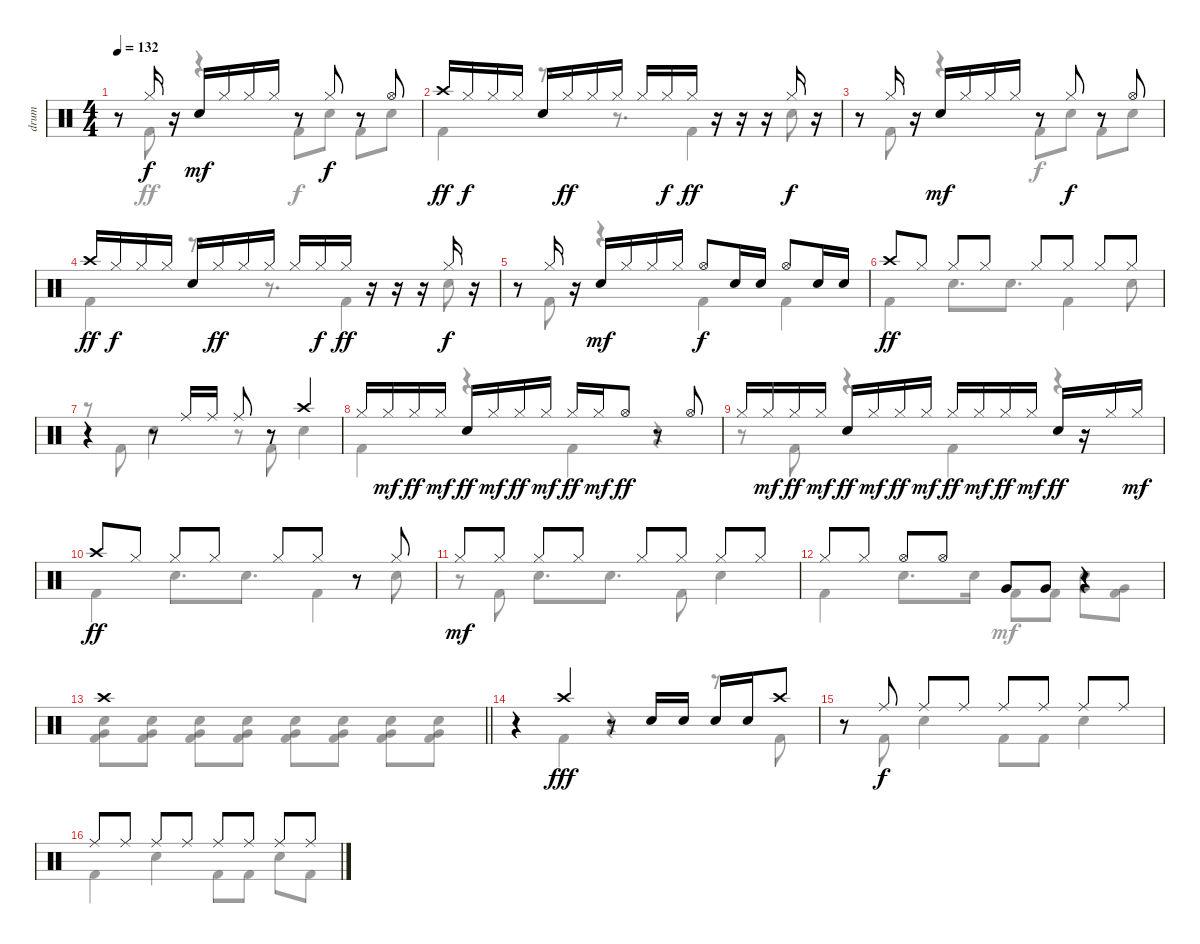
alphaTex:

\track ("drum" "drum") {instrument percussion}
\staff {score}
\articulation defaults
\voice
\ts (4 4)
\tempo 132
\clef neutral
\ks c
r.8{dy f} "Hi-Hat (closed)".16 r.16 "Snare (hit) 2".16{dy mf} "Hi-Hat (closed)".16 "Hi-Hat (closed)".16 "Hi-Hat (closed)".16 r.8 "Hi-Hat (closed)".8{dy f} r.8 "Hi-Hat (open)".8 |
"Crash high (hit)".16{dy ff} "Hi-Hat (closed)".16{dy f} "Hi-Hat (closed)".16 "Hi-Hat (closed)".16 "Snare (hit) 2".16 "Hi-Hat (closed)".16{dy ff} "Hi-Hat (closed)".16 "Hi-Hat (closed)".16 "Hi-Hat (closed)".16 "Hi-Hat (closed)".16{dy f} "Hi-Hat (closed)".16{dy ff} r.16 r.16 r.16 "Hi-Hat (closed)".16{dy f} r.16 |
r.8 "Hi-Hat (closed)".16 r.16 "Snare (hit) 2".16{dy mf} "Hi-Hat (closed)".16 "Hi-Hat (closed)".16 "Hi-Hat (closed)".16 r.8 "Hi-Hat (closed)".8{dy f} r.8 "Hi-Hat (open)".8 |
"Crash high (hit)".16{dy ff} "Hi-Hat (closed)".16{dy f} "Hi-Hat (closed)".16 "Hi-Hat (closed)".16 "Snare (hit) 2".16 "Hi-Hat (closed)".16{dy ff} "Hi-Hat (closed)".16 "Hi-Hat (closed)".16 "Hi-Hat (closed)".16 "Hi-Hat (closed)".16{dy f} "Hi-Hat (closed)".16{dy ff} r.16 r.16 r.16 "Hi-Hat (closed)".16{dy f} r.16 |
r.8 "Hi-Hat (closed)".16 r.16 "Snare (hit) 2".16{dy mf} "Hi-Hat (closed)".16 "Hi-Hat (closed)".16 "Hi-Hat (closed)".16 "Hi-Hat (open)".8{dy f} "Snare (hit) 2".16 "Snare (hit) 2".16 "Hi-Hat (open)".8 "Snare (hit) 2".16 "Snare (hit) 2".16 |
"Crash high (hit)".8{dy ff} "Hi-Hat (closed)".8 "Hi-Hat (closed)".8 "Hi-Hat (closed)".8 "Hi-Hat (closed)".8 "Hi-Hat (closed)".8 "Hi-Hat (closed)".8 "Hi-Hat (closed)".8 |
r.4 r.8 "Ride (middle)".16 "Ride (middle)".16 "Ride (middle)".8 r.8 "Crash high (hit)".4 |
"Hi-Hat (closed)".16 "Hi-Hat (closed)".16{dy mf} "Hi-Hat (closed)".16{dy ff} "Hi-Hat (closed)".16{dy mf} "Snare (hit) 2".16{dy ff} "Hi-Hat (closed)".16{dy mf} "Hi-Hat (closed)".16{dy ff} "Hi-Hat (closed)".16{dy mf} "Hi-Hat (closed)".16{dy ff} "Hi-Hat (closed)".16{dy mf} "Hi-Hat (open)".8{dy ff} r.8 "Hi-Hat (open)".8 |
"Hi-Hat (closed)".16 "Hi-Hat (closed)".16{dy mf} "Hi-Hat (closed)".16{dy ff} "Hi-Hat (closed)".16{dy mf} "Snare (hit) 2".16{dy ff} "Hi-Hat (closed)".16{dy mf} "Hi-Hat (closed)".16{dy ff} "Hi-Hat (closed)".16{dy mf} "Hi-Hat (closed)".16{dy ff} "Hi-Hat (closed)".16{dy mf} "Hi-Hat (closed)".16{dy ff} "Hi-Hat (closed)".16{dy mf} "Snare (hit) 2".16{dy ff} r.16 "Hi-Hat (closed)".16 "Hi-Hat (closed)".16{dy mf} |
"Crash high (hit)".8{dy ff} "Hi-Hat (closed)".8 "Hi-Hat (closed)".8 "Hi-Hat (closed)".8 "Hi-Hat (closed)".8 "Hi-Hat (closed)".8 r.8 "Hi-Hat (closed)".8 |
"Hi-Hat (closed)".8{dy mf} "Hi-Hat (closed)".8 "Hi-Hat (closed)".8 "Hi-Hat (closed)".8 "Hi-Hat (closed)".8 "Hi-Hat (closed)".8 "Hi-Hat (closed)".8 "Hi-Hat (closed)".8 |
"Hi-Hat (closed)".8 "Hi-Hat (closed)".8 "Hi-Hat (open)".8 "Hi-Hat (open)".8 "Very Low Tom (hit)".8 "Very Low Tom (hit)".8 r.4 |
\barLineRight lightlight "Crash high (hit)".1
|
r.4 "Crash high (hit)".4{dy fff} r.8 "Snare (hit) 2".16 "Snare (hit) 2".16 "Snare (hit) 2".16 "Snare (hit) 2".16 "Crash high (hit)".8 |
r.8 "Ride (middle)".8{dy f} "Ride (middle)".8 "Ride (middle)".8 "Ride (middle)".8 "Ride (middle)".8 "Ride (middle)".8 "Ride (middle)".8 |
"Ride (middle)".8 "Ride (middle)".8 "Ride (middle)".8 "Ride (middle)".8 "Ride (middle)".8 "Ride (middle)".8 "Ride (middle)".8 "Ride (middle)".8
\voice
\clef neutral
\ottava regular
\simile none
\ks c
r.8{dy ff} "Kick (hit) 2".8 r.4 "Kick (hit) 2".8{dy f} "Snare (hit) 2".8 "Kick (hit) 2".8 "Snare (hit) 2".8 |
"Kick (hit) 2".4{dy ff} r.8{d} r.8{d} "Kick (hit) 2".4 "Snare (hit) 2".8 |
r.8 "Kick (hit) 2".8 r.4 "Kick (hit) 2".8{dy f} "Snare (hit) 2".8 "Kick (hit) 2".8 "Snare (hit) 2".8 |
"Kick (hit) 2".4{dy ff} r.8{d} r.8{d} "Kick (hit) 2".4 "Snare (hit) 2".8 |
r.8 "Kick (hit) 2".8 r.4 "Kick (hit) 2".4{dy f} "Kick (hit) 2".4 |
"Kick (hit) 2".4{dy ff} "Snare (hit) 2".8{d} "Snare (hit) 2".8{d} "Kick (hit) 2".4 "Snare (hit) 2".8 |
r.8 "Kick (hit) 2".8 "Snare (hit) 2".4 r.8 "Kick (hit) 2".8 "Snare (hit) 2".4 |
"Kick (hit) 2".4 r.4 "Kick (hit) 2".4 r.4 |
r.8 "Kick (hit) 2".8 r.4 "Kick (hit) 2".4 r.4 |
"Kick (hit) 2".4 "Snare (hit) 2".8{d} "Snare (hit) 2".8{d} "Kick (hit) 2".4 "Snare (hit) 2".8 |
r.8 "Kick (hit) 2".8 "Snare (hit) 2".8{d} "Snare (hit) 2".8{d} "Kick (hit) 2".8 "Snare (hit) 2".4 |
"Kick (hit) 2".4 "Snare (hit) 2".8{d} "Snare (hit) 2".16 "Kick (hit) 2".8{dy mf} "Kick (hit) 2".8 ("Very Low Tom (hit)" "Snare (hit) 2").8 ("Very Low Tom (hit)" "Kick (hit) 2").8 |
\barLineRight lightlight
("Kick (hit) 2" "Very Low Tom (hit)" "Snare (hit) 2").8 ("Kick (hit) 2" "Very Low Tom (hit)" "Snare (hit) 2").8 ("Kick (hit) 2" "Very Low Tom (hit)" "Snare (hit) 2").8 ("Kick (hit) 2" "Very Low Tom (hit)" "Snare (hit) 2").8 ("Kick (hit) 2" "Very Low Tom (hit)" "Snare (hit) 2").8 ("Kick (hit) 2" "Very Low Tom (hit)" "Snare (hit) 2").8 ("Kick (hit) 2" "Very Low Tom (hit)" "Snare (hit) 2").8 ("Kick (hit) 2" "Very Low Tom (hit)" "Snare (hit) 2").8 |
r.4 "Kick (hit) 2".4{dy fff} r.4 r.8 "Kick (hit) 2".8 |
r.8 "Kick (hit) 2".8{dy f} "Snare (hit) 2".4 "Kick (hit) 2".8 "Kick (hit) 2".8 "Snare (hit) 2".4 |
"Kick (hit) 2".4 "Snare (hit) 2".4 "Kick (hit) 2".8 "Kick (hit) 2".8 "Snare (hit) 2".8 "Kick (hit) 2".8
